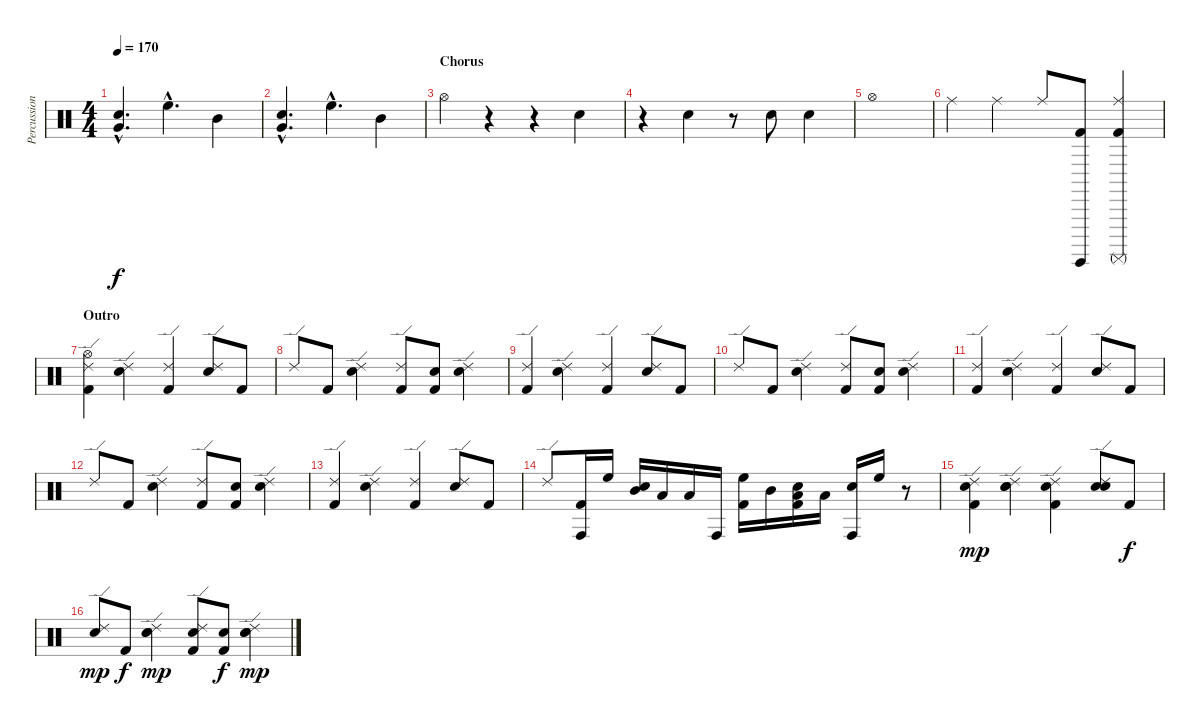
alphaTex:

\track ("Percussion" "Percussion") {instrument percussion}
\staff {score}
\articulation defaults
\ts (4 4)
\tempo 170
\clef neutral
\ks c
("Very Low Tom (hit)"{hac} "Electric Snare (hit)"{hac}).4{d dy f} "High Floor Tom (hit)"{hac}.4{d} "Mid Tom (hit)".4 |
("Very Low Tom (hit)"{hac} "Electric Snare (hit)"{hac}).4{d} "High Floor Tom (hit)"{hac}.4{d} "Mid Tom (hit)".4 |
\section ("" "Chorus")
"Hi-Hat (open)".4 r.4 r.4 "Hand Clap (hit)".4 |
r.4 "Hand Clap (hit)".4 r.8 "Hand Clap (hit)".8 "Hand Clap (hit)".4 |
"Hi-Hat (open)".1 |
"Ride (middle)".4 "Ride (middle)".4 "Ride (middle)".8 ("Surdo (hit)" "Kick (hit) 2").8 ("Ride (middle)" "Surdo (mute)" "Kick (hit) 2").4 |
\section ("" "Outro")
("Ride (edge) 2" "Hi-Hat (open)" "Kick (hit) 2").4 ("Hand Clap (hit)" "Ride (edge) 2").4 ("Ride (edge) 2" "Kick (hit) 2").4 ("Hand Clap (hit)" "Ride (edge) 2").8 "Kick (hit) 2".8 |
"Ride (edge) 2".8 "Kick (hit) 2".8 ("Hand Clap (hit)" "Ride (edge) 2").4 ("Ride (edge) 2" "Kick (hit) 2").8 ("Hand Clap (hit)" "Kick (hit) 2").8 ("Hand Clap (hit)" "Ride (edge) 2").4 |
("Ride (edge) 2" "Kick (hit) 2").4 ("Hand Clap (hit)" "Ride (edge) 2").4 ("Ride (edge) 2" "Kick (hit) 2").4 ("Hand Clap (hit)" "Ride (edge) 2").8 "Kick (hit) 2".8 |
"Ride (edge) 2".8 "Kick (hit) 2".8 ("Hand Clap (hit)" "Ride (edge) 2").4 ("Ride (edge) 2" "Kick (hit) 2").8 ("Hand Clap (hit)" "Kick (hit) 2").8 ("Hand Clap (hit)" "Ride (edge) 2").4 |
("Ride (edge) 2" "Kick (hit) 2").4 ("Hand Clap (hit)" "Ride (edge) 2").4 ("Ride (edge) 2" "Kick (hit) 2").4 ("Hand Clap (hit)" "Ride (edge) 2").8 "Kick (hit) 2".8 |
"Ride (edge) 2".8 "Kick (hit) 2".8 ("Hand Clap (hit)" "Ride (edge) 2").4 ("Ride (edge) 2" "Kick (hit) 2").8 ("Hand Clap (hit)" "Kick (hit) 2").8 ("Hand Clap (hit)" "Ride (edge) 2").4 |
("Ride (edge) 2" "Kick (hit) 2").4 ("Hand Clap (hit)" "Ride (edge) 2").4 ("Ride (edge) 2" "Kick (hit) 2").4 ("Hand Clap (hit)" "Ride (edge) 2").8 "Kick (hit) 2".8 |
"Ride (edge) 2".8 ("Conga high (hit)" "Kick (hit) 2").16 "High Floor Tom (hit)".16 ("Hand Clap (hit)" "Mid Tom (hit)").16 "Low Tom (hit)".16 "Low Floor Tom (hit)".16 "Conga high (hit)".16 ("High Floor Tom (hit)" "Kick (hit) 2").16 "Mid Tom (hit)".16 ("Hand Clap (hit)" "Low Tom (hit)" "Kick (hit) 2").16 "Low Floor Tom (hit)".16 ("Hand Clap (hit)" "Conga high (hit)").16 "High Floor Tom (hit)".16 r.8 |
("Ride (edge) 2" "Electric Snare (hit)" "Kick (hit) 2").4{dy mp} ("Hand Clap (hit)" "Ride (edge) 2" "Electric Snare (hit)").4 ("Ride (edge) 2" "Electric Snare (hit)" "Kick (hit) 2").4 ("Hand Clap (hit)" "Ride (edge) 2" "Electric Snare (hit)").8 "Kick (hit) 2".8{dy f} |
("Ride (edge) 2" "Electric Snare (hit)").8{dy mp} "Kick (hit) 2".8{dy f} ("Hand Clap (hit)" "Ride (edge) 2" "Electric Snare (hit)").4{dy mp} ("Ride (edge) 2" "Electric Snare (hit)" "Kick (hit) 2").8 ("Hand Clap (hit)" "Kick (hit) 2").8{dy f} ("Hand Clap (hit)" "Ride (edge) 2" "Electric Snare (hit)").4{dy mp}
